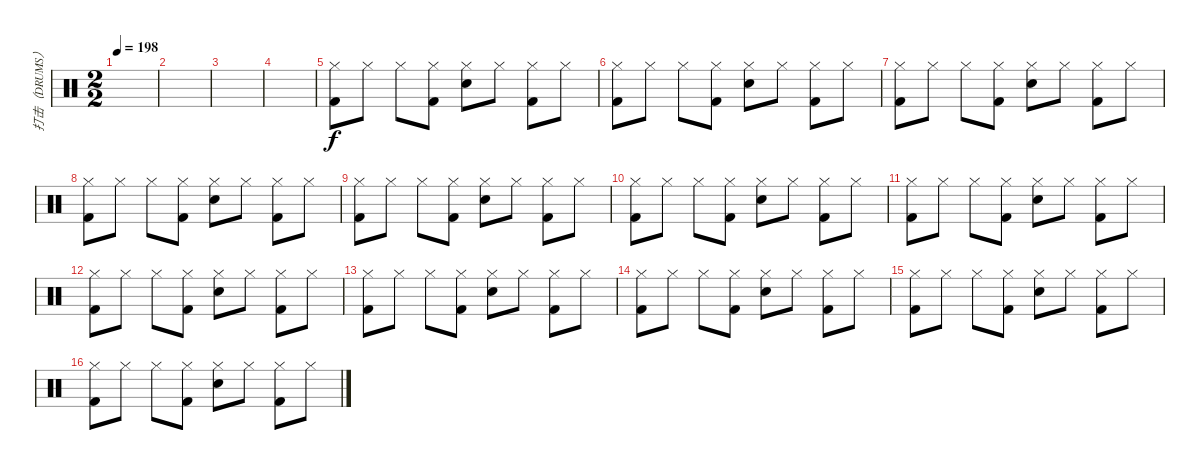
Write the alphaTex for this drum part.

\track ("打击（DRUMS）" "打击（DRUMS）") {instrument percussion}
\staff {score}
\articulation defaults
\ts (2 2)
\tempo 198
\clef neutral
\ks c
|
|
|
|
("Kick (hit) 2" "Hi-Hat (closed)").8 "Hi-Hat (closed)".8 "Hi-Hat (closed)".8 ("Kick (hit) 2" "Hi-Hat (closed)").8 ("Electric Snare (hit)" "Hi-Hat (closed)").8 "Hi-Hat (closed)".8 ("Kick (hit) 2" "Hi-Hat (closed)").8 "Hi-Hat (closed)".8 |
("Kick (hit) 2" "Hi-Hat (closed)").8 "Hi-Hat (closed)".8 "Hi-Hat (closed)".8 ("Kick (hit) 2" "Hi-Hat (closed)").8 ("Electric Snare (hit)" "Hi-Hat (closed)").8 "Hi-Hat (closed)".8 ("Kick (hit) 2" "Hi-Hat (closed)").8 "Hi-Hat (closed)".8 |
("Kick (hit) 2" "Hi-Hat (closed)").8 "Hi-Hat (closed)".8 "Hi-Hat (closed)".8 ("Kick (hit) 2" "Hi-Hat (closed)").8 ("Electric Snare (hit)" "Hi-Hat (closed)").8 "Hi-Hat (closed)".8 ("Kick (hit) 2" "Hi-Hat (closed)").8 "Hi-Hat (closed)".8 |
("Kick (hit) 2" "Hi-Hat (closed)").8 "Hi-Hat (closed)".8 "Hi-Hat (closed)".8 ("Kick (hit) 2" "Hi-Hat (closed)").8 ("Electric Snare (hit)" "Hi-Hat (closed)").8 "Hi-Hat (closed)".8 ("Kick (hit) 2" "Hi-Hat (closed)").8 "Hi-Hat (closed)".8 |
("Kick (hit) 2" "Hi-Hat (closed)").8 "Hi-Hat (closed)".8 "Hi-Hat (closed)".8 ("Kick (hit) 2" "Hi-Hat (closed)").8 ("Electric Snare (hit)" "Hi-Hat (closed)").8 "Hi-Hat (closed)".8 ("Kick (hit) 2" "Hi-Hat (closed)").8 "Hi-Hat (closed)".8 |
("Kick (hit) 2" "Hi-Hat (closed)").8 "Hi-Hat (closed)".8 "Hi-Hat (closed)".8 ("Kick (hit) 2" "Hi-Hat (closed)").8 ("Electric Snare (hit)" "Hi-Hat (closed)").8 "Hi-Hat (closed)".8 ("Kick (hit) 2" "Hi-Hat (closed)").8 "Hi-Hat (closed)".8 |
("Kick (hit) 2" "Hi-Hat (closed)").8 "Hi-Hat (closed)".8 "Hi-Hat (closed)".8 ("Kick (hit) 2" "Hi-Hat (closed)").8 ("Electric Snare (hit)" "Hi-Hat (closed)").8 "Hi-Hat (closed)".8 ("Kick (hit) 2" "Hi-Hat (closed)").8 "Hi-Hat (closed)".8 |
("Kick (hit) 2" "Hi-Hat (closed)").8 "Hi-Hat (closed)".8 "Hi-Hat (closed)".8 ("Kick (hit) 2" "Hi-Hat (closed)").8 ("Electric Snare (hit)" "Hi-Hat (closed)").8 "Hi-Hat (closed)".8 ("Kick (hit) 2" "Hi-Hat (closed)").8 "Hi-Hat (closed)".8 |
("Kick (hit) 2" "Hi-Hat (closed)").8 "Hi-Hat (closed)".8 "Hi-Hat (closed)".8 ("Kick (hit) 2" "Hi-Hat (closed)").8 ("Electric Snare (hit)" "Hi-Hat (closed)").8 "Hi-Hat (closed)".8 ("Kick (hit) 2" "Hi-Hat (closed)").8 "Hi-Hat (closed)".8 |
("Kick (hit) 2" "Hi-Hat (closed)").8 "Hi-Hat (closed)".8 "Hi-Hat (closed)".8 ("Kick (hit) 2" "Hi-Hat (closed)").8 ("Electric Snare (hit)" "Hi-Hat (closed)").8 "Hi-Hat (closed)".8 ("Kick (hit) 2" "Hi-Hat (closed)").8 "Hi-Hat (closed)".8 |
("Kick (hit) 2" "Hi-Hat (closed)").8 "Hi-Hat (closed)".8 "Hi-Hat (closed)".8 ("Kick (hit) 2" "Hi-Hat (closed)").8 ("Electric Snare (hit)" "Hi-Hat (closed)").8 "Hi-Hat (closed)".8 ("Kick (hit) 2" "Hi-Hat (closed)").8 "Hi-Hat (closed)".8 |
("Kick (hit) 2" "Hi-Hat (closed)").8 "Hi-Hat (closed)".8 "Hi-Hat (closed)".8 ("Kick (hit) 2" "Hi-Hat (closed)").8 ("Electric Snare (hit)" "Hi-Hat (closed)").8 "Hi-Hat (closed)".8 ("Kick (hit) 2" "Hi-Hat (closed)").8 "Hi-Hat (closed)".8
